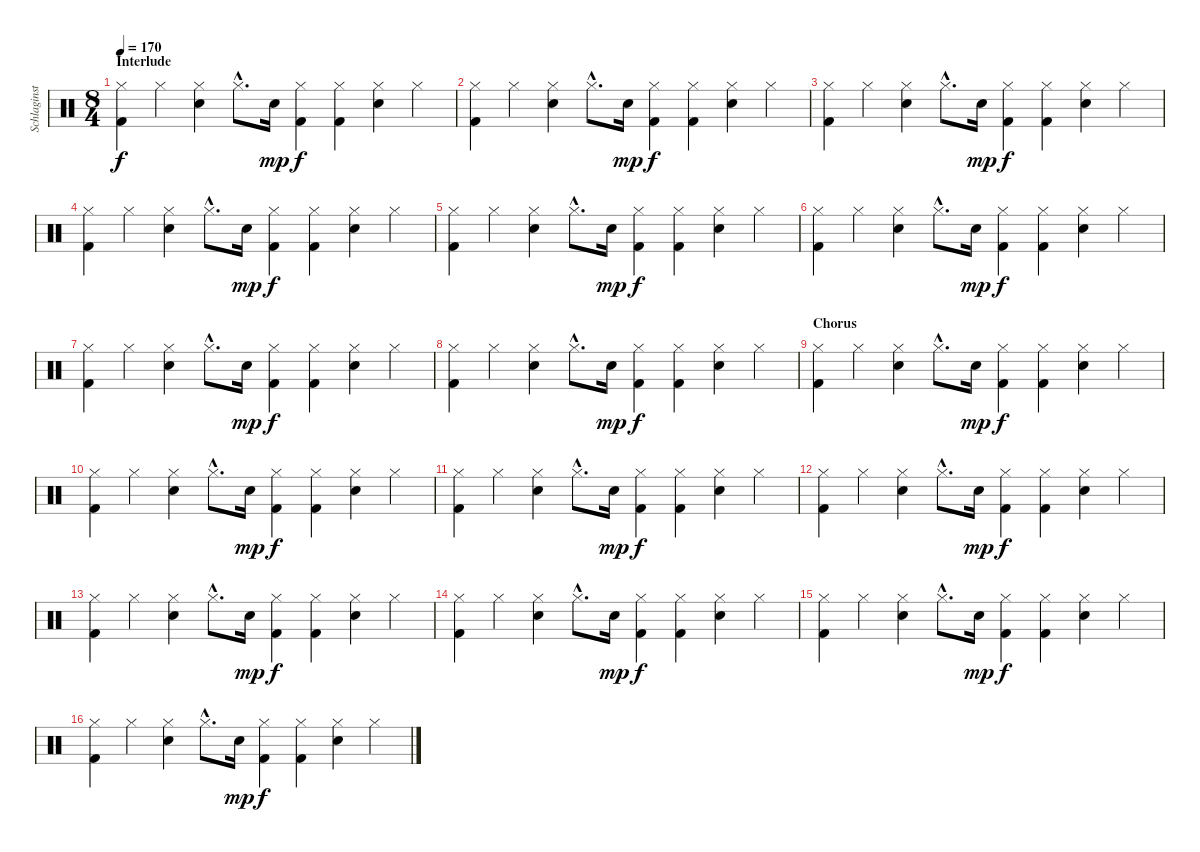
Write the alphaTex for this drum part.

\track ("Schlaginstrumente - Auswahl" "Schlaginst") {instrument percussion}
\staff {score}
\articulation defaults
\ts (8 4)
\section ("" "Interlude")
\tempo 170
\clef neutral
\ks c
("Hi-Hat (closed)" "Kick (hit) 2").4{dy f} "Hi-Hat (closed)".4 ("Hi-Hat (closed)" "Electric Snare (hit)").4 "Hi-Hat (closed)"{hac}.8{d} "Electric Snare (hit)".16{dy mp} ("Hi-Hat (closed)" "Kick (hit) 2").4{dy f} ("Hi-Hat (closed)" "Kick (hit) 2").4 ("Hi-Hat (closed)" "Electric Snare (hit)").4 "Hi-Hat (closed)".4 |
("Hi-Hat (closed)" "Kick (hit) 2").4 "Hi-Hat (closed)".4 ("Hi-Hat (closed)" "Electric Snare (hit)").4 "Hi-Hat (closed)"{hac}.8{d} "Electric Snare (hit)".16{dy mp} ("Hi-Hat (closed)" "Kick (hit) 2").4{dy f} ("Hi-Hat (closed)" "Kick (hit) 2").4 ("Hi-Hat (closed)" "Electric Snare (hit)").4 "Hi-Hat (closed)".4 |
("Hi-Hat (closed)" "Kick (hit) 2").4 "Hi-Hat (closed)".4 ("Hi-Hat (closed)" "Electric Snare (hit)").4 "Hi-Hat (closed)"{hac}.8{d} "Electric Snare (hit)".16{dy mp} ("Hi-Hat (closed)" "Kick (hit) 2").4{dy f} ("Hi-Hat (closed)" "Kick (hit) 2").4 ("Hi-Hat (closed)" "Electric Snare (hit)").4 "Hi-Hat (closed)".4 |
("Hi-Hat (closed)" "Kick (hit) 2").4 "Hi-Hat (closed)".4 ("Hi-Hat (closed)" "Electric Snare (hit)").4 "Hi-Hat (closed)"{hac}.8{d} "Electric Snare (hit)".16{dy mp} ("Hi-Hat (closed)" "Kick (hit) 2").4{dy f} ("Hi-Hat (closed)" "Kick (hit) 2").4 ("Hi-Hat (closed)" "Electric Snare (hit)").4 "Hi-Hat (closed)".4 |
("Hi-Hat (closed)" "Kick (hit) 2").4 "Hi-Hat (closed)".4 ("Hi-Hat (closed)" "Electric Snare (hit)").4 "Hi-Hat (closed)"{hac}.8{d} "Electric Snare (hit)".16{dy mp} ("Hi-Hat (closed)" "Kick (hit) 2").4{dy f} ("Hi-Hat (closed)" "Kick (hit) 2").4 ("Hi-Hat (closed)" "Electric Snare (hit)").4 "Hi-Hat (closed)".4 |
("Hi-Hat (closed)" "Kick (hit) 2").4 "Hi-Hat (closed)".4 ("Hi-Hat (closed)" "Electric Snare (hit)").4 "Hi-Hat (closed)"{hac}.8{d} "Electric Snare (hit)".16{dy mp} ("Hi-Hat (closed)" "Kick (hit) 2").4{dy f} ("Hi-Hat (closed)" "Kick (hit) 2").4 ("Hi-Hat (closed)" "Electric Snare (hit)").4 "Hi-Hat (closed)".4 |
("Hi-Hat (closed)" "Kick (hit) 2").4 "Hi-Hat (closed)".4 ("Hi-Hat (closed)" "Electric Snare (hit)").4 "Hi-Hat (closed)"{hac}.8{d} "Electric Snare (hit)".16{dy mp} ("Hi-Hat (closed)" "Kick (hit) 2").4{dy f} ("Hi-Hat (closed)" "Kick (hit) 2").4 ("Hi-Hat (closed)" "Electric Snare (hit)").4 "Hi-Hat (closed)".4 |
("Hi-Hat (closed)" "Kick (hit) 2").4 "Hi-Hat (closed)".4 ("Hi-Hat (closed)" "Electric Snare (hit)").4 "Hi-Hat (closed)"{hac}.8{d} "Electric Snare (hit)".16{dy mp} ("Hi-Hat (closed)" "Kick (hit) 2").4{dy f} ("Hi-Hat (closed)" "Kick (hit) 2").4 ("Hi-Hat (closed)" "Electric Snare (hit)").4 "Hi-Hat (closed)".4 |
\section ("" "Chorus")
("Hi-Hat (closed)" "Kick (hit) 2").4 "Hi-Hat (closed)".4 ("Hi-Hat (closed)" "Electric Snare (hit)").4 "Hi-Hat (closed)"{hac}.8{d} "Electric Snare (hit)".16{dy mp} ("Hi-Hat (closed)" "Kick (hit) 2").4{dy f} ("Hi-Hat (closed)" "Kick (hit) 2").4 ("Hi-Hat (closed)" "Electric Snare (hit)").4 "Hi-Hat (closed)".4 |
("Hi-Hat (closed)" "Kick (hit) 2").4 "Hi-Hat (closed)".4 ("Hi-Hat (closed)" "Electric Snare (hit)").4 "Hi-Hat (closed)"{hac}.8{d} "Electric Snare (hit)".16{dy mp} ("Hi-Hat (closed)" "Kick (hit) 2").4{dy f} ("Hi-Hat (closed)" "Kick (hit) 2").4 ("Hi-Hat (closed)" "Electric Snare (hit)").4 "Hi-Hat (closed)".4 |
("Hi-Hat (closed)" "Kick (hit) 2").4 "Hi-Hat (closed)".4 ("Hi-Hat (closed)" "Electric Snare (hit)").4 "Hi-Hat (closed)"{hac}.8{d} "Electric Snare (hit)".16{dy mp} ("Hi-Hat (closed)" "Kick (hit) 2").4{dy f} ("Hi-Hat (closed)" "Kick (hit) 2").4 ("Hi-Hat (closed)" "Electric Snare (hit)").4 "Hi-Hat (closed)".4 |
("Hi-Hat (closed)" "Kick (hit) 2").4 "Hi-Hat (closed)".4 ("Hi-Hat (closed)" "Electric Snare (hit)").4 "Hi-Hat (closed)"{hac}.8{d} "Electric Snare (hit)".16{dy mp} ("Hi-Hat (closed)" "Kick (hit) 2").4{dy f} ("Hi-Hat (closed)" "Kick (hit) 2").4 ("Hi-Hat (closed)" "Electric Snare (hit)").4 "Hi-Hat (closed)".4 |
("Hi-Hat (closed)" "Kick (hit) 2").4 "Hi-Hat (closed)".4 ("Hi-Hat (closed)" "Electric Snare (hit)").4 "Hi-Hat (closed)"{hac}.8{d} "Electric Snare (hit)".16{dy mp} ("Hi-Hat (closed)" "Kick (hit) 2").4{dy f} ("Hi-Hat (closed)" "Kick (hit) 2").4 ("Hi-Hat (closed)" "Electric Snare (hit)").4 "Hi-Hat (closed)".4 |
("Hi-Hat (closed)" "Kick (hit) 2").4 "Hi-Hat (closed)".4 ("Hi-Hat (closed)" "Electric Snare (hit)").4 "Hi-Hat (closed)"{hac}.8{d} "Electric Snare (hit)".16{dy mp} ("Hi-Hat (closed)" "Kick (hit) 2").4{dy f} ("Hi-Hat (closed)" "Kick (hit) 2").4 ("Hi-Hat (closed)" "Electric Snare (hit)").4 "Hi-Hat (closed)".4 |
("Hi-Hat (closed)" "Kick (hit) 2").4 "Hi-Hat (closed)".4 ("Hi-Hat (closed)" "Electric Snare (hit)").4 "Hi-Hat (closed)"{hac}.8{d} "Electric Snare (hit)".16{dy mp} ("Hi-Hat (closed)" "Kick (hit) 2").4{dy f} ("Hi-Hat (closed)" "Kick (hit) 2").4 ("Hi-Hat (closed)" "Electric Snare (hit)").4 "Hi-Hat (closed)".4 |
("Hi-Hat (closed)" "Kick (hit) 2").4 "Hi-Hat (closed)".4 ("Hi-Hat (closed)" "Electric Snare (hit)").4 "Hi-Hat (closed)"{hac}.8{d} "Electric Snare (hit)".16{dy mp} ("Hi-Hat (closed)" "Kick (hit) 2").4{dy f} ("Hi-Hat (closed)" "Kick (hit) 2").4 ("Hi-Hat (closed)" "Electric Snare (hit)").4 "Hi-Hat (closed)".4
